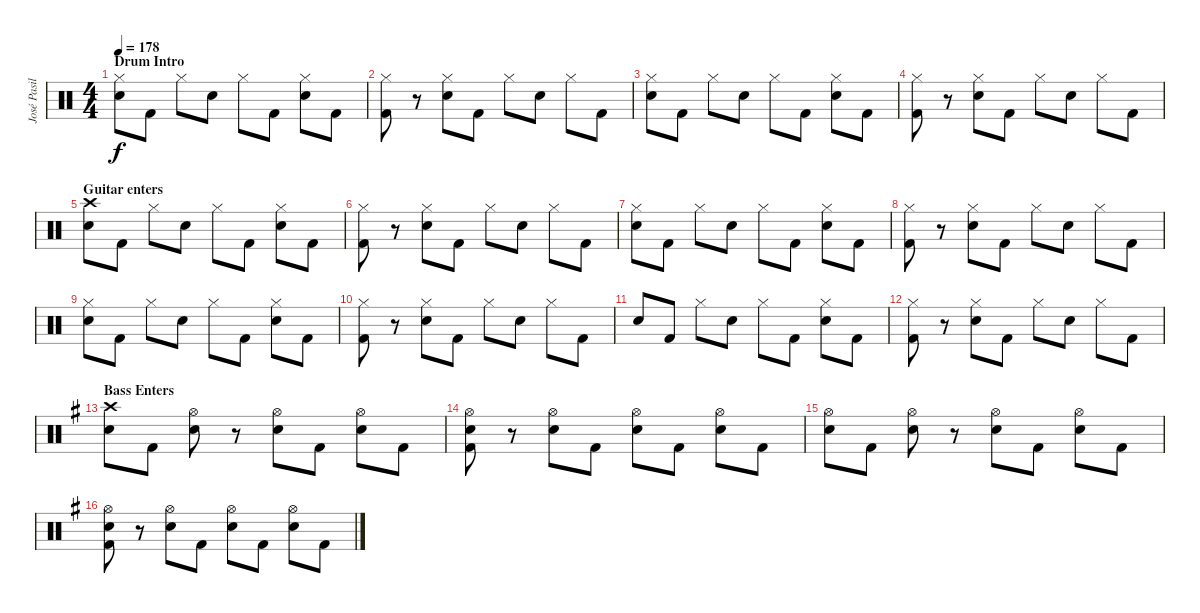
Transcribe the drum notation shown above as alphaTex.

\track ("José Pasillas [Drums]" "José Pasil") {instrument percussion}
\staff {score}
\articulation defaults
\ts (4 4)
\section ("" "Drum Intro")
\tempo 178
\clef neutral
\ks c
("Electric Snare (hit)" "Hi-Hat (closed)").8{dy f} "Kick (hit) 2".8 "Hi-Hat (closed)".8 "Electric Snare (hit)".8 "Hi-Hat (closed)".8 "Kick (hit) 2".8 ("Electric Snare (hit)" "Hi-Hat (closed)").8 "Kick (hit) 2".8 |
("Kick (hit) 2" "Hi-Hat (closed)").8 r.8 ("Electric Snare (hit)" "Hi-Hat (closed)").8 "Kick (hit) 2".8 "Hi-Hat (closed)".8 "Electric Snare (hit)".8 "Hi-Hat (closed)".8 "Kick (hit) 2".8 |
("Electric Snare (hit)" "Hi-Hat (closed)").8 "Kick (hit) 2".8 "Hi-Hat (closed)".8 "Electric Snare (hit)".8 "Hi-Hat (closed)".8 "Kick (hit) 2".8 ("Electric Snare (hit)" "Hi-Hat (closed)").8 "Kick (hit) 2".8 |
("Kick (hit) 2" "Hi-Hat (closed)").8 r.8 ("Electric Snare (hit)" "Hi-Hat (closed)").8 "Kick (hit) 2".8 "Hi-Hat (closed)".8 "Electric Snare (hit)".8 "Hi-Hat (closed)".8 "Kick (hit) 2".8 |
\section ("" "Guitar enters")
("Electric Snare (hit)" "Crash high (hit)").8 "Kick (hit) 2".8 "Hi-Hat (closed)".8 "Electric Snare (hit)".8 "Hi-Hat (closed)".8 "Kick (hit) 2".8 ("Electric Snare (hit)" "Hi-Hat (closed)").8 "Kick (hit) 2".8 |
("Kick (hit) 2" "Hi-Hat (closed)").8 r.8 ("Electric Snare (hit)" "Hi-Hat (closed)").8 "Kick (hit) 2".8 "Hi-Hat (closed)".8 "Electric Snare (hit)".8 "Hi-Hat (closed)".8 "Kick (hit) 2".8 |
("Electric Snare (hit)" "Hi-Hat (closed)").8 "Kick (hit) 2".8 "Hi-Hat (closed)".8 "Electric Snare (hit)".8 "Hi-Hat (closed)".8 "Kick (hit) 2".8 ("Electric Snare (hit)" "Hi-Hat (closed)").8 "Kick (hit) 2".8 |
("Kick (hit) 2" "Hi-Hat (closed)").8 r.8 ("Electric Snare (hit)" "Hi-Hat (closed)").8 "Kick (hit) 2".8 "Hi-Hat (closed)".8 "Electric Snare (hit)".8 "Hi-Hat (closed)".8 "Kick (hit) 2".8 |
("Electric Snare (hit)" "Hi-Hat (closed)").8 "Kick (hit) 2".8 "Hi-Hat (closed)".8 "Electric Snare (hit)".8 "Hi-Hat (closed)".8 "Kick (hit) 2".8 ("Electric Snare (hit)" "Hi-Hat (closed)").8 "Kick (hit) 2".8 |
("Kick (hit) 2" "Hi-Hat (closed)").8 r.8 ("Electric Snare (hit)" "Hi-Hat (closed)").8 "Kick (hit) 2".8 "Hi-Hat (closed)".8 "Electric Snare (hit)".8 "Hi-Hat (closed)".8 "Kick (hit) 2".8 |
"Electric Snare (hit)".8 "Kick (hit) 2".8 "Hi-Hat (closed)".8 "Electric Snare (hit)".8 "Hi-Hat (closed)".8 "Kick (hit) 2".8 ("Electric Snare (hit)" "Hi-Hat (closed)").8 "Kick (hit) 2".8 |
("Kick (hit) 2" "Hi-Hat (closed)").8 r.8 ("Electric Snare (hit)" "Hi-Hat (closed)").8 "Kick (hit) 2".8 "Hi-Hat (closed)".8 "Electric Snare (hit)".8 "Hi-Hat (closed)".8 "Kick (hit) 2".8 |
\section ("" "Bass Enters")
\ks g
("Electric Snare (hit)" "Crash high (hit)").8 "Kick (hit) 2".8 ("Electric Snare (hit)" "Hi-Hat (open)").8 r.8 ("Electric Snare (hit)" "Hi-Hat (open)").8 "Kick (hit) 2".8 ("Electric Snare (hit)" "Hi-Hat (open)").8 "Kick (hit) 2".8 |
("Kick (hit) 2" "Electric Snare (hit)" "Hi-Hat (open)").8 r.8 ("Electric Snare (hit)" "Hi-Hat (open)").8 "Kick (hit) 2".8 ("Electric Snare (hit)" "Hi-Hat (open)").8 "Kick (hit) 2".8 ("Electric Snare (hit)" "Hi-Hat (open)").8 "Kick (hit) 2".8 |
("Electric Snare (hit)" "Hi-Hat (open)").8 "Kick (hit) 2".8 ("Electric Snare (hit)" "Hi-Hat (open)").8 r.8 ("Electric Snare (hit)" "Hi-Hat (open)").8 "Kick (hit) 2".8 ("Electric Snare (hit)" "Hi-Hat (open)").8 "Kick (hit) 2".8 |
("Kick (hit) 2" "Electric Snare (hit)" "Hi-Hat (open)").8 r.8 ("Electric Snare (hit)" "Hi-Hat (open)").8 "Kick (hit) 2".8 ("Electric Snare (hit)" "Hi-Hat (open)").8 "Kick (hit) 2".8 ("Electric Snare (hit)" "Hi-Hat (open)").8 "Kick (hit) 2".8
